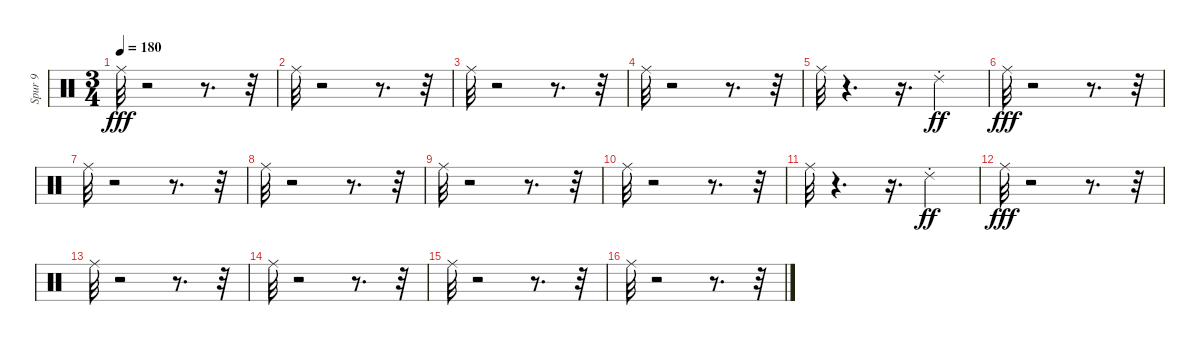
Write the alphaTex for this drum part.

\track ("Spur 9" "Spur 9") {instrument percussion}
\staff {score}
\articulation defaults
\ts (3 4)
\tempo 180
\clef neutral
\ks c "Ride (middle)".32{dy fff}
r.2 r.8{d} r.32 |
"Ride (middle)".32 r.2 r.8{d} r.32 |
"Ride (middle)".32 r.2 r.8{d} r.32 |
"Ride (middle)".32 r.2 r.8{d} r.32 |
"Ride (middle)".32 r.4{d} r.16{d} "Ride (choke) 2".4{dy ff} |
"Ride (middle)".32{dy fff} r.2 r.8{d} r.32 |
"Ride (middle)".32 r.2 r.8{d} r.32 |
"Ride (middle)".32 r.2 r.8{d} r.32 |
"Ride (middle)".32 r.2 r.8{d} r.32 |
"Ride (middle)".32 r.2 r.8{d} r.32 |
"Ride (middle)".32 r.4{d} r.16{d} "Ride (choke) 2".4{dy ff} |
"Ride (middle)".32{dy fff} r.2 r.8{d} r.32 |
"Ride (middle)".32 r.2 r.8{d} r.32 |
"Ride (middle)".32 r.2 r.8{d} r.32 |
"Ride (middle)".32 r.2 r.8{d} r.32 |
"Ride (middle)".32 r.2 r.8{d} r.32
